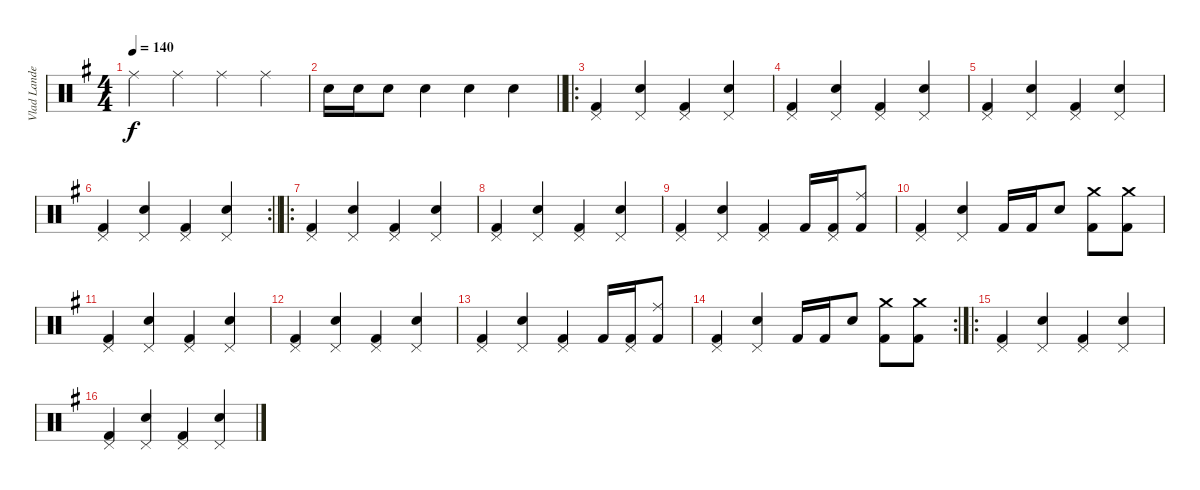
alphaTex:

\track ("Vlad Landeros" "Vlad Lande") {instrument percussion}
\staff {score}
\articulation defaults
\ts (4 4)
\tempo 140
\clef neutral
\ks eminor "Ride (middle)".4{dy f} "Ride (middle)".4 "Ride (middle)".4 "Ride (middle)".4
|
\barLineRight lightlight "Snare (hit) 2".16 "Snare (hit) 2".16 "Snare (hit) 2".8 "Snare (hit) 2".4 "Snare (hit) 2".4 "Snare (hit) 2".4
|
\ro
("Pedal Hi-Hat (hit)" "Kick (hit) 2").4 ("Pedal Hi-Hat (hit)" "Snare (hit) 2").4 ("Pedal Hi-Hat (hit)" "Kick (hit) 2").4 ("Pedal Hi-Hat (hit)" "Snare (hit) 2").4 |
("Pedal Hi-Hat (hit)" "Kick (hit) 2").4 ("Pedal Hi-Hat (hit)" "Snare (hit) 2").4 ("Pedal Hi-Hat (hit)" "Kick (hit) 2").4 ("Pedal Hi-Hat (hit)" "Snare (hit) 2").4 |
("Pedal Hi-Hat (hit)" "Kick (hit) 2").4 ("Pedal Hi-Hat (hit)" "Snare (hit) 2").4 ("Pedal Hi-Hat (hit)" "Kick (hit) 2").4 ("Pedal Hi-Hat (hit)" "Snare (hit) 2").4 |
\rc 2
\barLineRight lightlight
("Pedal Hi-Hat (hit)" "Kick (hit) 2").4 ("Pedal Hi-Hat (hit)" "Snare (hit) 2").4 ("Pedal Hi-Hat (hit)" "Kick (hit) 2").4 ("Pedal Hi-Hat (hit)" "Snare (hit) 2").4 |
\ro
("Pedal Hi-Hat (hit)" "Kick (hit) 2").4 ("Pedal Hi-Hat (hit)" "Snare (hit) 2").4 ("Pedal Hi-Hat (hit)" "Kick (hit) 2").4 ("Pedal Hi-Hat (hit)" "Snare (hit) 2").4 |
("Pedal Hi-Hat (hit)" "Kick (hit) 2").4 ("Pedal Hi-Hat (hit)" "Snare (hit) 2").4 ("Pedal Hi-Hat (hit)" "Kick (hit) 2").4 ("Pedal Hi-Hat (hit)" "Snare (hit) 2").4 |
("Pedal Hi-Hat (hit)" "Kick (hit) 2").4 ("Pedal Hi-Hat (hit)" "Snare (hit) 2").4 ("Pedal Hi-Hat (hit)" "Kick (hit) 2").4 "Kick (hit) 2".16 ("Pedal Hi-Hat (hit)" "Kick (hit) 2").16 ("Ride (middle)" "Kick (hit) 2").8 |
("Pedal Hi-Hat (hit)" "Kick (hit) 2").4 ("Pedal Hi-Hat (hit)" "Snare (hit) 2").4 "Kick (hit) 2".16 "Kick (hit) 2".16 "Snare (hit) 2".8 ("Crash medium (hit)" "Kick (hit) 2").8 ("Crash medium (hit)" "Kick (hit) 2").8 |
("Pedal Hi-Hat (hit)" "Kick (hit) 2").4 ("Pedal Hi-Hat (hit)" "Snare (hit) 2").4 ("Pedal Hi-Hat (hit)" "Kick (hit) 2").4 ("Pedal Hi-Hat (hit)" "Snare (hit) 2").4 |
("Pedal Hi-Hat (hit)" "Kick (hit) 2").4 ("Pedal Hi-Hat (hit)" "Snare (hit) 2").4 ("Pedal Hi-Hat (hit)" "Kick (hit) 2").4 ("Pedal Hi-Hat (hit)" "Snare (hit) 2").4 |
("Pedal Hi-Hat (hit)" "Kick (hit) 2").4 ("Pedal Hi-Hat (hit)" "Snare (hit) 2").4 ("Pedal Hi-Hat (hit)" "Kick (hit) 2").4 "Kick (hit) 2".16 ("Pedal Hi-Hat (hit)" "Kick (hit) 2").16 ("Ride (middle)" "Kick (hit) 2").8 |
\rc 2
("Pedal Hi-Hat (hit)" "Kick (hit) 2").4 ("Pedal Hi-Hat (hit)" "Snare (hit) 2").4 "Kick (hit) 2".16 "Kick (hit) 2".16 "Snare (hit) 2".8 ("Crash medium (hit)" "Kick (hit) 2").8 ("Crash medium (hit)" "Kick (hit) 2").8 |
\ro
("Pedal Hi-Hat (hit)" "Kick (hit) 2").4 ("Pedal Hi-Hat (hit)" "Snare (hit) 2").4 ("Pedal Hi-Hat (hit)" "Kick (hit) 2").4 ("Pedal Hi-Hat (hit)" "Snare (hit) 2").4 |
("Pedal Hi-Hat (hit)" "Kick (hit) 2").4 ("Pedal Hi-Hat (hit)" "Snare (hit) 2").4 ("Pedal Hi-Hat (hit)" "Kick (hit) 2").4 ("Pedal Hi-Hat (hit)" "Snare (hit) 2").4
